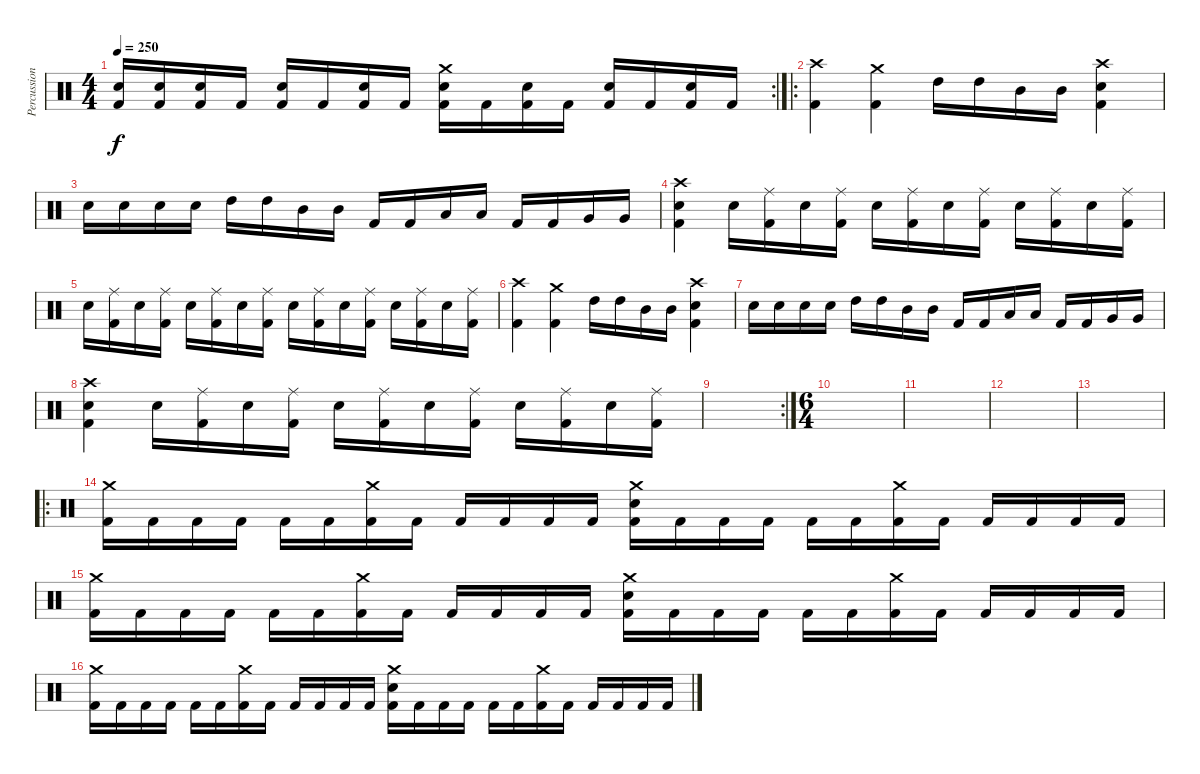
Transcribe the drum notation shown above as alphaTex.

\track ("Percussion" "Percussion") {instrument percussion}
\staff {score}
\articulation defaults
\rc 2
\ts (4 4)
\tempo 250
\clef neutral
\ks c
("Electric Snare (hit)" "Kick (hit) 2").16{dy f} ("Electric Snare (hit)" "Kick (hit) 2").16 ("Electric Snare (hit)" "Kick (hit) 2").16 "Kick (hit) 2".16 ("Electric Snare (hit)" "Kick (hit) 2").16 "Kick (hit) 2".16 ("Electric Snare (hit)" "Kick (hit) 2").16 "Kick (hit) 2".16 ("Crash medium (hit)" "Electric Snare (hit)" "Kick (hit) 2").16 "Kick (hit) 2".16 ("Electric Snare (hit)" "Kick (hit) 2").16 "Kick (hit) 2".16 ("Electric Snare (hit)" "Kick (hit) 2").16 "Kick (hit) 2".16 ("Electric Snare (hit)" "Kick (hit) 2").16 "Kick (hit) 2".16 |
\ro
("Crash high (hit)" "Kick (hit) 2").4 ("Crash medium (hit)" "Kick (hit) 2").4 "High Tom (hit)".16 "High Tom (hit)".16 "Mid Tom (hit)".16 "Mid Tom (hit)".16 ("Crash high (hit)" "Electric Snare (hit)" "Kick (hit) 2").4 |
"Electric Snare (hit)".16 "Electric Snare (hit)".16 "Electric Snare (hit)".16 "Electric Snare (hit)".16 "High Tom (hit)".16 "High Tom (hit)".16 "Mid Tom (hit)".16 "Mid Tom (hit)".16 "Kick (hit) 2".16 "Kick (hit) 2".16 "Low Tom (hit)".16 "Low Tom (hit)".16 "Kick (hit) 2".16 "Kick (hit) 2".16 "Very Low Tom (hit)".16 "Very Low Tom (hit)".16 |
("Crash high (hit)" "Electric Snare (hit)" "Kick (hit) 2").4 "Electric Snare (hit)".16 ("Ride (middle)" "Kick (hit) 2").16 "Electric Snare (hit)".16 ("Ride (middle)" "Kick (hit) 2").16 "Electric Snare (hit)".16 ("Ride (middle)" "Kick (hit) 2").16 "Electric Snare (hit)".16 ("Ride (middle)" "Kick (hit) 2").16 "Electric Snare (hit)".16 ("Ride (middle)" "Kick (hit) 2").16 "Electric Snare (hit)".16 ("Ride (middle)" "Kick (hit) 2").16 |
"Electric Snare (hit)".16 ("Ride (middle)" "Kick (hit) 2").16 "Electric Snare (hit)".16 ("Ride (middle)" "Kick (hit) 2").16 "Electric Snare (hit)".16 ("Ride (middle)" "Kick (hit) 2").16 "Electric Snare (hit)".16 ("Ride (middle)" "Kick (hit) 2").16 "Electric Snare (hit)".16 ("Ride (middle)" "Kick (hit) 2").16 "Electric Snare (hit)".16 ("Ride (middle)" "Kick (hit) 2").16 "Electric Snare (hit)".16 ("Ride (middle)" "Kick (hit) 2").16 "Electric Snare (hit)".16 ("Ride (middle)" "Kick (hit) 2").16 |
("Crash high (hit)" "Kick (hit) 2").4 ("Crash medium (hit)" "Kick (hit) 2").4 "High Tom (hit)".16 "High Tom (hit)".16 "Mid Tom (hit)".16 "Mid Tom (hit)".16 ("Crash high (hit)" "Electric Snare (hit)" "Kick (hit) 2").4 |
"Electric Snare (hit)".16 "Electric Snare (hit)".16 "Electric Snare (hit)".16 "Electric Snare (hit)".16 "High Tom (hit)".16 "High Tom (hit)".16 "Mid Tom (hit)".16 "Mid Tom (hit)".16 "Kick (hit) 2".16 "Kick (hit) 2".16 "Low Tom (hit)".16 "Low Tom (hit)".16 "Kick (hit) 2".16 "Kick (hit) 2".16 "Very Low Tom (hit)".16 "Very Low Tom (hit)".16 |
("Crash high (hit)" "Electric Snare (hit)" "Kick (hit) 2").4 "Electric Snare (hit)".16 ("Ride (middle)" "Kick (hit) 2").16 "Electric Snare (hit)".16 ("Ride (middle)" "Kick (hit) 2").16 "Electric Snare (hit)".16 ("Ride (middle)" "Kick (hit) 2").16 "Electric Snare (hit)".16 ("Ride (middle)" "Kick (hit) 2").16 "Electric Snare (hit)".16 ("Ride (middle)" "Kick (hit) 2").16 "Electric Snare (hit)".16 ("Ride (middle)" "Kick (hit) 2").16 |
\rc 2
|
\ts (6 4)
|
|
|
|
\ro
("Crash medium (hit)" "Kick (hit) 2").16 "Kick (hit) 2".16 "Kick (hit) 2".16 "Kick (hit) 2".16 "Kick (hit) 2".16 "Kick (hit) 2".16 ("Crash medium (hit)" "Kick (hit) 2").16 "Kick (hit) 2".16 "Kick (hit) 2".16 "Kick (hit) 2".16 "Kick (hit) 2".16 "Kick (hit) 2".16 ("Crash medium (hit)" "Electric Snare (hit)" "Kick (hit) 2").16 "Kick (hit) 2".16 "Kick (hit) 2".16 "Kick (hit) 2".16 "Kick (hit) 2".16 "Kick (hit) 2".16 ("Crash medium (hit)" "Kick (hit) 2").16 "Kick (hit) 2".16 "Kick (hit) 2".16 "Kick (hit) 2".16 "Kick (hit) 2".16 "Kick (hit) 2".16 |
("Crash medium (hit)" "Kick (hit) 2").16 "Kick (hit) 2".16 "Kick (hit) 2".16 "Kick (hit) 2".16 "Kick (hit) 2".16 "Kick (hit) 2".16 ("Crash medium (hit)" "Kick (hit) 2").16 "Kick (hit) 2".16 "Kick (hit) 2".16 "Kick (hit) 2".16 "Kick (hit) 2".16 "Kick (hit) 2".16 ("Crash medium (hit)" "Electric Snare (hit)" "Kick (hit) 2").16 "Kick (hit) 2".16 "Kick (hit) 2".16 "Kick (hit) 2".16 "Kick (hit) 2".16 "Kick (hit) 2".16 ("Crash medium (hit)" "Kick (hit) 2").16 "Kick (hit) 2".16 "Kick (hit) 2".16 "Kick (hit) 2".16 "Kick (hit) 2".16 "Kick (hit) 2".16 |
("Crash medium (hit)" "Kick (hit) 2").16 "Kick (hit) 2".16 "Kick (hit) 2".16 "Kick (hit) 2".16 "Kick (hit) 2".16 "Kick (hit) 2".16 ("Crash medium (hit)" "Kick (hit) 2").16 "Kick (hit) 2".16 "Kick (hit) 2".16 "Kick (hit) 2".16 "Kick (hit) 2".16 "Kick (hit) 2".16 ("Crash medium (hit)" "Electric Snare (hit)" "Kick (hit) 2").16 "Kick (hit) 2".16 "Kick (hit) 2".16 "Kick (hit) 2".16 "Kick (hit) 2".16 "Kick (hit) 2".16 ("Crash medium (hit)" "Kick (hit) 2").16 "Kick (hit) 2".16 "Kick (hit) 2".16 "Kick (hit) 2".16 "Kick (hit) 2".16 "Kick (hit) 2".16
